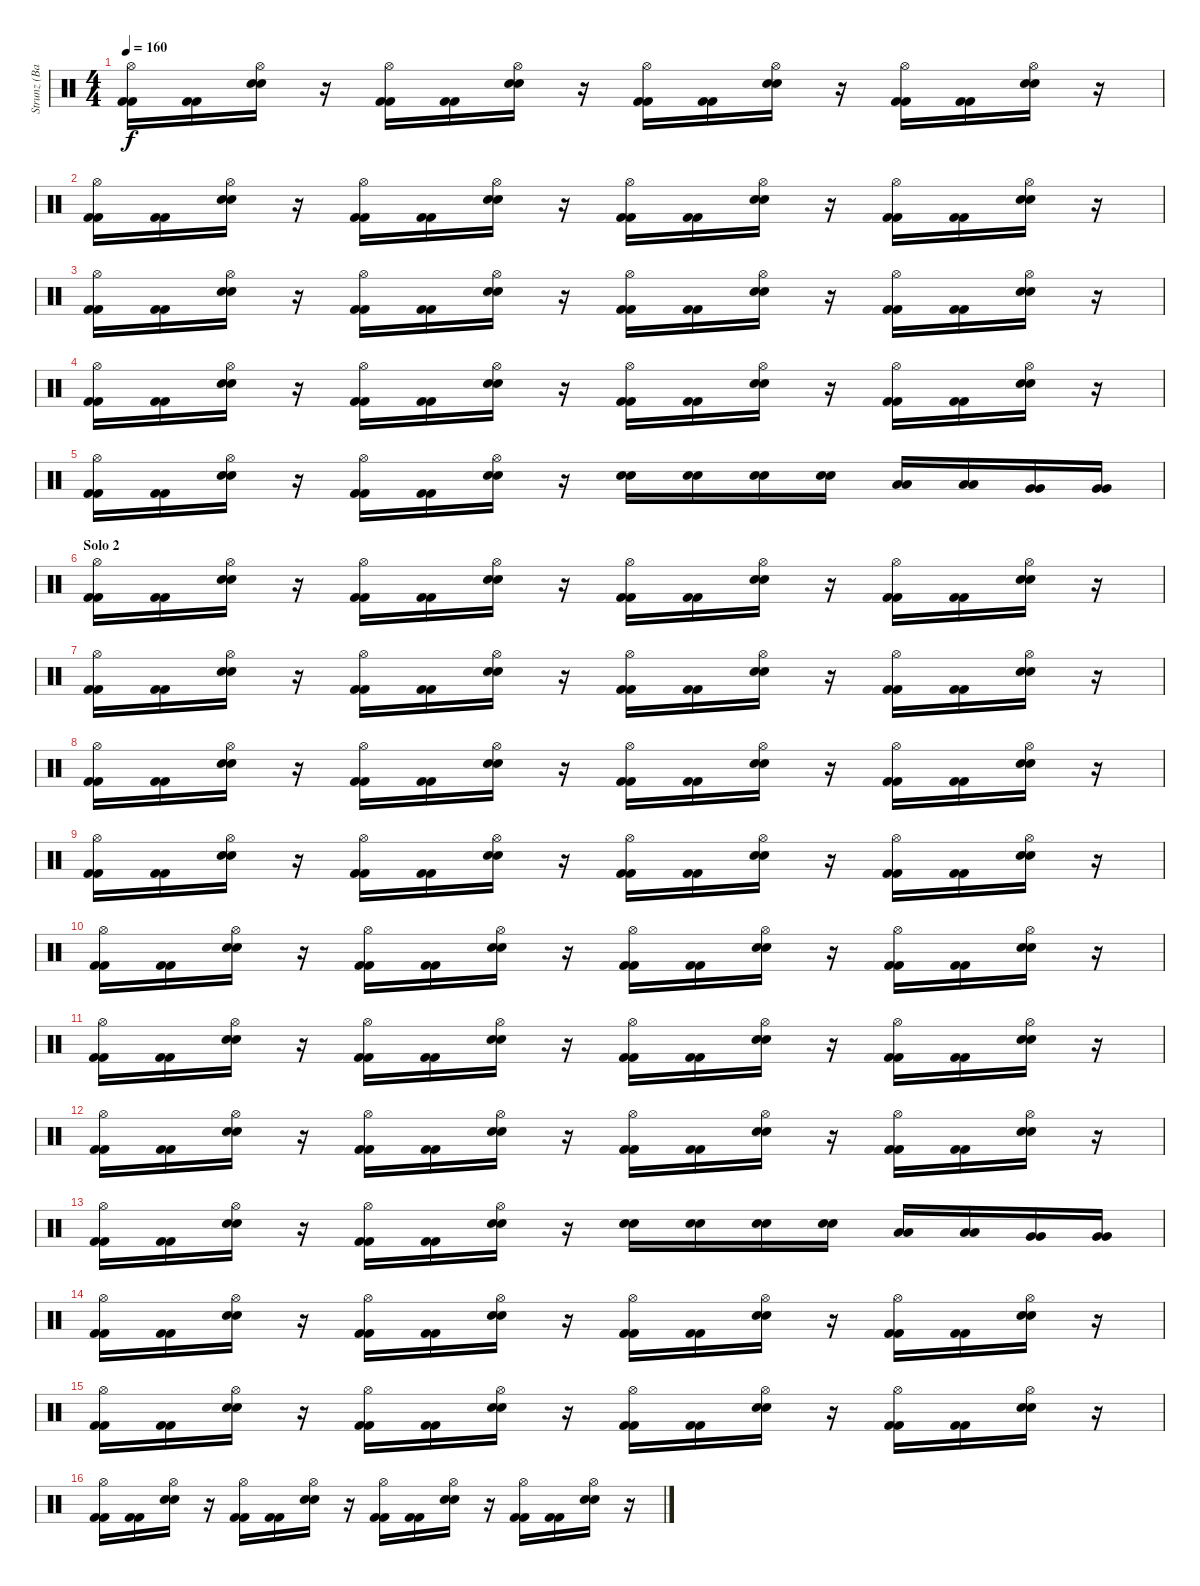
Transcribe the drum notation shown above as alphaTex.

\track ("Strunz (Bateria)" "Strunz (Ba") {instrument percussion}
\staff {score}
\articulation defaults
\ts (4 4)
\tempo 160
\clef neutral
\ks c
("Hi-Hat (open)" "Kick (hit) 2" "Kick (hit) 2").16{dy f} ("Kick (hit) 2" "Kick (hit) 2").16 ("Hi-Hat (open)" "Snare (hit) 2" "Snare (hit) 2").16 r.16 ("Hi-Hat (open)" "Kick (hit) 2" "Kick (hit) 2").16 ("Kick (hit) 2" "Kick (hit) 2").16 ("Hi-Hat (open)" "Snare (hit) 2" "Snare (hit) 2").16 r.16 ("Hi-Hat (open)" "Kick (hit) 2" "Kick (hit) 2").16 ("Kick (hit) 2" "Kick (hit) 2").16 ("Hi-Hat (open)" "Snare (hit) 2" "Snare (hit) 2").16 r.16 ("Hi-Hat (open)" "Kick (hit) 2" "Kick (hit) 2").16 ("Kick (hit) 2" "Kick (hit) 2").16 ("Hi-Hat (open)" "Snare (hit) 2" "Snare (hit) 2").16 r.16 |
("Hi-Hat (open)" "Kick (hit) 2" "Kick (hit) 2").16 ("Kick (hit) 2" "Kick (hit) 2").16 ("Hi-Hat (open)" "Snare (hit) 2" "Snare (hit) 2").16 r.16 ("Hi-Hat (open)" "Kick (hit) 2" "Kick (hit) 2").16 ("Kick (hit) 2" "Kick (hit) 2").16 ("Hi-Hat (open)" "Snare (hit) 2" "Snare (hit) 2").16 r.16 ("Hi-Hat (open)" "Kick (hit) 2" "Kick (hit) 2").16 ("Kick (hit) 2" "Kick (hit) 2").16 ("Hi-Hat (open)" "Snare (hit) 2" "Snare (hit) 2").16 r.16 ("Hi-Hat (open)" "Kick (hit) 2" "Kick (hit) 2").16 ("Kick (hit) 2" "Kick (hit) 2").16 ("Hi-Hat (open)" "Snare (hit) 2" "Snare (hit) 2").16 r.16 |
("Hi-Hat (open)" "Kick (hit) 2" "Kick (hit) 2").16 ("Kick (hit) 2" "Kick (hit) 2").16 ("Hi-Hat (open)" "Snare (hit) 2" "Snare (hit) 2").16 r.16 ("Hi-Hat (open)" "Kick (hit) 2" "Kick (hit) 2").16 ("Kick (hit) 2" "Kick (hit) 2").16 ("Hi-Hat (open)" "Snare (hit) 2" "Snare (hit) 2").16 r.16 ("Hi-Hat (open)" "Kick (hit) 2" "Kick (hit) 2").16 ("Kick (hit) 2" "Kick (hit) 2").16 ("Hi-Hat (open)" "Snare (hit) 2" "Snare (hit) 2").16 r.16 ("Hi-Hat (open)" "Kick (hit) 2" "Kick (hit) 2").16 ("Kick (hit) 2" "Kick (hit) 2").16 ("Hi-Hat (open)" "Snare (hit) 2" "Snare (hit) 2").16 r.16 |
("Hi-Hat (open)" "Kick (hit) 2" "Kick (hit) 2").16 ("Kick (hit) 2" "Kick (hit) 2").16 ("Hi-Hat (open)" "Snare (hit) 2" "Snare (hit) 2").16 r.16 ("Hi-Hat (open)" "Kick (hit) 2" "Kick (hit) 2").16 ("Kick (hit) 2" "Kick (hit) 2").16 ("Hi-Hat (open)" "Snare (hit) 2" "Snare (hit) 2").16 r.16 ("Hi-Hat (open)" "Kick (hit) 2" "Kick (hit) 2").16 ("Kick (hit) 2" "Kick (hit) 2").16 ("Hi-Hat (open)" "Snare (hit) 2" "Snare (hit) 2").16 r.16 ("Hi-Hat (open)" "Kick (hit) 2" "Kick (hit) 2").16 ("Kick (hit) 2" "Kick (hit) 2").16 ("Hi-Hat (open)" "Snare (hit) 2" "Snare (hit) 2").16 r.16 |
("Hi-Hat (open)" "Kick (hit) 2" "Kick (hit) 2").16 ("Kick (hit) 2" "Kick (hit) 2").16 ("Hi-Hat (open)" "Snare (hit) 2" "Snare (hit) 2").16 r.16 ("Hi-Hat (open)" "Kick (hit) 2" "Kick (hit) 2").16 ("Kick (hit) 2" "Kick (hit) 2").16 ("Hi-Hat (open)" "Snare (hit) 2" "Snare (hit) 2").16 r.16 ("Snare (hit) 2" "Snare (hit) 2").16 ("Snare (hit) 2" "Snare (hit) 2").16 ("Snare (hit) 2" "Snare (hit) 2").16 ("Snare (hit) 2" "Snare (hit) 2").16 ("Low Tom (hit)" "Low Tom (hit)").16 ("Low Tom (hit)" "Low Tom (hit)").16 ("Very Low Tom (hit)" "Very Low Tom (hit)").16 ("Very Low Tom (hit)" "Very Low Tom (hit)").16 |
\section ("" "Solo 2")
("Hi-Hat (open)" "Kick (hit) 2" "Kick (hit) 2").16 ("Kick (hit) 2" "Kick (hit) 2").16 ("Hi-Hat (open)" "Snare (hit) 2" "Snare (hit) 2").16 r.16 ("Hi-Hat (open)" "Kick (hit) 2" "Kick (hit) 2").16 ("Kick (hit) 2" "Kick (hit) 2").16 ("Hi-Hat (open)" "Snare (hit) 2" "Snare (hit) 2").16 r.16 ("Hi-Hat (open)" "Kick (hit) 2" "Kick (hit) 2").16 ("Kick (hit) 2" "Kick (hit) 2").16 ("Hi-Hat (open)" "Snare (hit) 2" "Snare (hit) 2").16 r.16 ("Hi-Hat (open)" "Kick (hit) 2" "Kick (hit) 2").16 ("Kick (hit) 2" "Kick (hit) 2").16 ("Hi-Hat (open)" "Snare (hit) 2" "Snare (hit) 2").16 r.16 |
("Hi-Hat (open)" "Kick (hit) 2" "Kick (hit) 2").16 ("Kick (hit) 2" "Kick (hit) 2").16 ("Hi-Hat (open)" "Snare (hit) 2" "Snare (hit) 2").16 r.16 ("Hi-Hat (open)" "Kick (hit) 2" "Kick (hit) 2").16 ("Kick (hit) 2" "Kick (hit) 2").16 ("Hi-Hat (open)" "Snare (hit) 2" "Snare (hit) 2").16 r.16 ("Hi-Hat (open)" "Kick (hit) 2" "Kick (hit) 2").16 ("Kick (hit) 2" "Kick (hit) 2").16 ("Hi-Hat (open)" "Snare (hit) 2" "Snare (hit) 2").16 r.16 ("Hi-Hat (open)" "Kick (hit) 2" "Kick (hit) 2").16 ("Kick (hit) 2" "Kick (hit) 2").16 ("Hi-Hat (open)" "Snare (hit) 2" "Snare (hit) 2").16 r.16 |
("Hi-Hat (open)" "Kick (hit) 2" "Kick (hit) 2").16 ("Kick (hit) 2" "Kick (hit) 2").16 ("Hi-Hat (open)" "Snare (hit) 2" "Snare (hit) 2").16 r.16 ("Hi-Hat (open)" "Kick (hit) 2" "Kick (hit) 2").16 ("Kick (hit) 2" "Kick (hit) 2").16 ("Hi-Hat (open)" "Snare (hit) 2" "Snare (hit) 2").16 r.16 ("Hi-Hat (open)" "Kick (hit) 2" "Kick (hit) 2").16 ("Kick (hit) 2" "Kick (hit) 2").16 ("Hi-Hat (open)" "Snare (hit) 2" "Snare (hit) 2").16 r.16 ("Hi-Hat (open)" "Kick (hit) 2" "Kick (hit) 2").16 ("Kick (hit) 2" "Kick (hit) 2").16 ("Hi-Hat (open)" "Snare (hit) 2" "Snare (hit) 2").16 r.16 |
("Hi-Hat (open)" "Kick (hit) 2" "Kick (hit) 2").16 ("Kick (hit) 2" "Kick (hit) 2").16 ("Hi-Hat (open)" "Snare (hit) 2" "Snare (hit) 2").16 r.16 ("Hi-Hat (open)" "Kick (hit) 2" "Kick (hit) 2").16 ("Kick (hit) 2" "Kick (hit) 2").16 ("Hi-Hat (open)" "Snare (hit) 2" "Snare (hit) 2").16 r.16 ("Hi-Hat (open)" "Kick (hit) 2" "Kick (hit) 2").16 ("Kick (hit) 2" "Kick (hit) 2").16 ("Hi-Hat (open)" "Snare (hit) 2" "Snare (hit) 2").16 r.16 ("Hi-Hat (open)" "Kick (hit) 2" "Kick (hit) 2").16 ("Kick (hit) 2" "Kick (hit) 2").16 ("Hi-Hat (open)" "Snare (hit) 2" "Snare (hit) 2").16 r.16 |
("Hi-Hat (open)" "Kick (hit) 2" "Kick (hit) 2").16 ("Kick (hit) 2" "Kick (hit) 2").16 ("Hi-Hat (open)" "Snare (hit) 2" "Snare (hit) 2").16 r.16 ("Hi-Hat (open)" "Kick (hit) 2" "Kick (hit) 2").16 ("Kick (hit) 2" "Kick (hit) 2").16 ("Hi-Hat (open)" "Snare (hit) 2" "Snare (hit) 2").16 r.16 ("Hi-Hat (open)" "Kick (hit) 2" "Kick (hit) 2").16 ("Kick (hit) 2" "Kick (hit) 2").16 ("Hi-Hat (open)" "Snare (hit) 2" "Snare (hit) 2").16 r.16 ("Hi-Hat (open)" "Kick (hit) 2" "Kick (hit) 2").16 ("Kick (hit) 2" "Kick (hit) 2").16 ("Hi-Hat (open)" "Snare (hit) 2" "Snare (hit) 2").16 r.16 |
("Hi-Hat (open)" "Kick (hit) 2" "Kick (hit) 2").16 ("Kick (hit) 2" "Kick (hit) 2").16 ("Hi-Hat (open)" "Snare (hit) 2" "Snare (hit) 2").16 r.16 ("Hi-Hat (open)" "Kick (hit) 2" "Kick (hit) 2").16 ("Kick (hit) 2" "Kick (hit) 2").16 ("Hi-Hat (open)" "Snare (hit) 2" "Snare (hit) 2").16 r.16 ("Hi-Hat (open)" "Kick (hit) 2" "Kick (hit) 2").16 ("Kick (hit) 2" "Kick (hit) 2").16 ("Hi-Hat (open)" "Snare (hit) 2" "Snare (hit) 2").16 r.16 ("Hi-Hat (open)" "Kick (hit) 2" "Kick (hit) 2").16 ("Kick (hit) 2" "Kick (hit) 2").16 ("Hi-Hat (open)" "Snare (hit) 2" "Snare (hit) 2").16 r.16 |
("Hi-Hat (open)" "Kick (hit) 2" "Kick (hit) 2").16 ("Kick (hit) 2" "Kick (hit) 2").16 ("Hi-Hat (open)" "Snare (hit) 2" "Snare (hit) 2").16 r.16 ("Hi-Hat (open)" "Kick (hit) 2" "Kick (hit) 2").16 ("Kick (hit) 2" "Kick (hit) 2").16 ("Hi-Hat (open)" "Snare (hit) 2" "Snare (hit) 2").16 r.16 ("Hi-Hat (open)" "Kick (hit) 2" "Kick (hit) 2").16 ("Kick (hit) 2" "Kick (hit) 2").16 ("Hi-Hat (open)" "Snare (hit) 2" "Snare (hit) 2").16 r.16 ("Hi-Hat (open)" "Kick (hit) 2" "Kick (hit) 2").16 ("Kick (hit) 2" "Kick (hit) 2").16 ("Hi-Hat (open)" "Snare (hit) 2" "Snare (hit) 2").16 r.16 |
("Hi-Hat (open)" "Kick (hit) 2" "Kick (hit) 2").16 ("Kick (hit) 2" "Kick (hit) 2").16 ("Hi-Hat (open)" "Snare (hit) 2" "Snare (hit) 2").16 r.16 ("Hi-Hat (open)" "Kick (hit) 2" "Kick (hit) 2").16 ("Kick (hit) 2" "Kick (hit) 2").16 ("Hi-Hat (open)" "Snare (hit) 2" "Snare (hit) 2").16 r.16 ("Snare (hit) 2" "Snare (hit) 2").16 ("Snare (hit) 2" "Snare (hit) 2").16 ("Snare (hit) 2" "Snare (hit) 2").16 ("Snare (hit) 2" "Snare (hit) 2").16 ("Low Tom (hit)" "Low Tom (hit)").16 ("Low Tom (hit)" "Low Tom (hit)").16 ("Very Low Tom (hit)" "Very Low Tom (hit)").16 ("Very Low Tom (hit)" "Very Low Tom (hit)").16 |
("Hi-Hat (open)" "Kick (hit) 2" "Kick (hit) 2").16 ("Kick (hit) 2" "Kick (hit) 2").16 ("Hi-Hat (open)" "Snare (hit) 2" "Snare (hit) 2").16 r.16 ("Hi-Hat (open)" "Kick (hit) 2" "Kick (hit) 2").16 ("Kick (hit) 2" "Kick (hit) 2").16 ("Hi-Hat (open)" "Snare (hit) 2" "Snare (hit) 2").16 r.16 ("Hi-Hat (open)" "Kick (hit) 2" "Kick (hit) 2").16 ("Kick (hit) 2" "Kick (hit) 2").16 ("Hi-Hat (open)" "Snare (hit) 2" "Snare (hit) 2").16 r.16 ("Hi-Hat (open)" "Kick (hit) 2" "Kick (hit) 2").16 ("Kick (hit) 2" "Kick (hit) 2").16 ("Hi-Hat (open)" "Snare (hit) 2" "Snare (hit) 2").16 r.16 |
("Hi-Hat (open)" "Kick (hit) 2" "Kick (hit) 2").16 ("Kick (hit) 2" "Kick (hit) 2").16 ("Hi-Hat (open)" "Snare (hit) 2" "Snare (hit) 2").16 r.16 ("Hi-Hat (open)" "Kick (hit) 2" "Kick (hit) 2").16 ("Kick (hit) 2" "Kick (hit) 2").16 ("Hi-Hat (open)" "Snare (hit) 2" "Snare (hit) 2").16 r.16 ("Hi-Hat (open)" "Kick (hit) 2" "Kick (hit) 2").16 ("Kick (hit) 2" "Kick (hit) 2").16 ("Hi-Hat (open)" "Snare (hit) 2" "Snare (hit) 2").16 r.16 ("Hi-Hat (open)" "Kick (hit) 2" "Kick (hit) 2").16 ("Kick (hit) 2" "Kick (hit) 2").16 ("Hi-Hat (open)" "Snare (hit) 2" "Snare (hit) 2").16 r.16 |
("Hi-Hat (open)" "Kick (hit) 2" "Kick (hit) 2").16 ("Kick (hit) 2" "Kick (hit) 2").16 ("Hi-Hat (open)" "Snare (hit) 2" "Snare (hit) 2").16 r.16 ("Hi-Hat (open)" "Kick (hit) 2" "Kick (hit) 2").16 ("Kick (hit) 2" "Kick (hit) 2").16 ("Hi-Hat (open)" "Snare (hit) 2" "Snare (hit) 2").16 r.16 ("Hi-Hat (open)" "Kick (hit) 2" "Kick (hit) 2").16 ("Kick (hit) 2" "Kick (hit) 2").16 ("Hi-Hat (open)" "Snare (hit) 2" "Snare (hit) 2").16 r.16 ("Hi-Hat (open)" "Kick (hit) 2" "Kick (hit) 2").16 ("Kick (hit) 2" "Kick (hit) 2").16 ("Hi-Hat (open)" "Snare (hit) 2" "Snare (hit) 2").16 r.16
